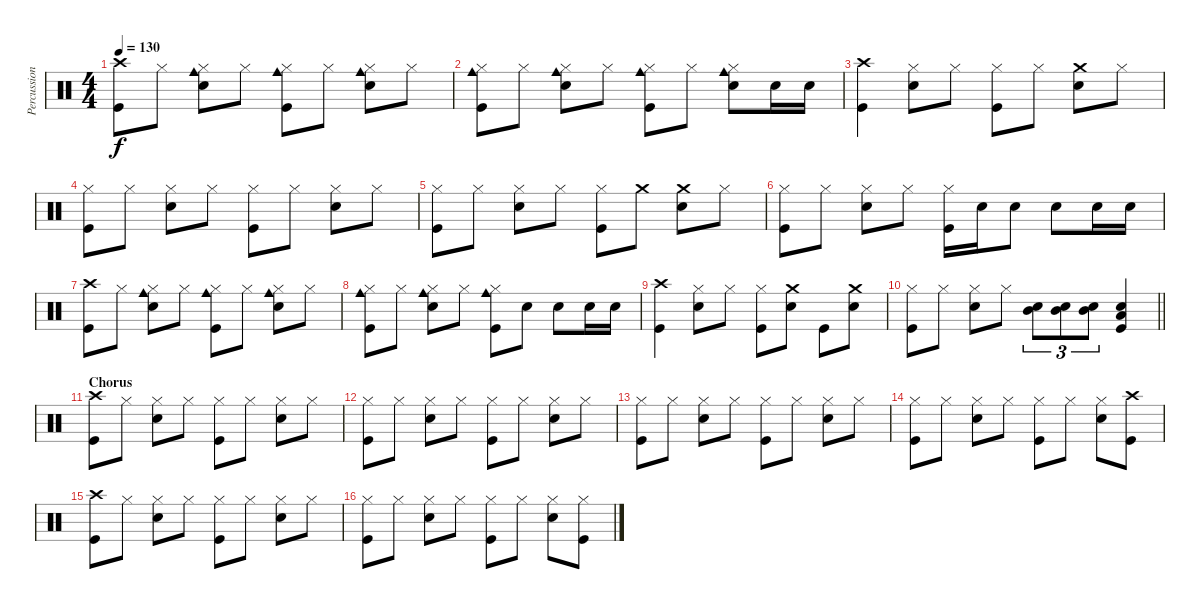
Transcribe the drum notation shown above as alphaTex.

\track ("Percussions" "Percussion") {instrument percussion}
\staff {score}
\articulation defaults
\ts (4 4)
\tempo 130
\clef neutral
\ks c
("Crash high (hit)" "Kick (hit)").8{dy f} "Hi-Hat (closed)".8 ("Cowbell medium (hit)" "Hi-Hat (closed)" "Snare (hit) 2").8 "Hi-Hat (closed)".8 ("Cowbell medium (hit)" "Hi-Hat (closed)" "Kick (hit)").8 "Hi-Hat (closed)".8 ("Cowbell medium (hit)" "Hi-Hat (closed)" "Snare (hit) 2").8 "Hi-Hat (closed)".8 |
("Cowbell medium (hit)" "Hi-Hat (closed)" "Kick (hit)").8 "Hi-Hat (closed)".8 ("Cowbell medium (hit)" "Hi-Hat (closed)" "Snare (hit) 2").8 "Hi-Hat (closed)".8 ("Cowbell medium (hit)" "Hi-Hat (closed)" "Kick (hit)").8 "Hi-Hat (closed)".8 ("Cowbell medium (hit)" "Hi-Hat (closed)" "Snare (hit) 2").8 "Snare (hit) 2".16 "Snare (hit) 2".16 |
("Crash high (hit)" "Kick (hit)").4 ("Hi-Hat (closed)" "Snare (hit) 2").8 "Hi-Hat (closed)".8 ("Hi-Hat (closed)" "Kick (hit)").8 "Hi-Hat (closed)".8 ("Crash medium (hit)" "Snare (hit) 2").8 "Hi-Hat (closed)".8 |
("Hi-Hat (closed)" "Kick (hit)").8 "Hi-Hat (closed)".8 ("Hi-Hat (closed)" "Snare (hit) 2").8 "Hi-Hat (closed)".8 ("Hi-Hat (closed)" "Kick (hit)").8 "Hi-Hat (closed)".8 ("Hi-Hat (closed)" "Snare (hit) 2").8 "Hi-Hat (closed)".8 |
("Hi-Hat (closed)" "Kick (hit)").8 "Hi-Hat (closed)".8 ("Hi-Hat (closed)" "Snare (hit) 2").8 "Hi-Hat (closed)".8 ("Hi-Hat (closed)" "Kick (hit)").8 "Crash medium (hit)".8 ("Crash medium (hit)" "Snare (hit) 2").8 "Hi-Hat (closed)".8 |
("Hi-Hat (closed)" "Kick (hit)").8 "Hi-Hat (closed)".8 ("Hi-Hat (closed)" "Snare (hit) 2").8 "Hi-Hat (closed)".8 ("Hi-Hat (closed)" "Kick (hit)").16 "Snare (hit) 2".16 "Snare (hit) 2".8 "Snare (hit) 2".8 "Snare (hit) 2".16 "Snare (hit) 2".16 |
("Crash high (hit)" "Kick (hit)").8 "Hi-Hat (closed)".8 ("Cowbell medium (hit)" "Hi-Hat (closed)" "Snare (hit) 2").8 "Hi-Hat (closed)".8 ("Cowbell medium (hit)" "Hi-Hat (closed)" "Kick (hit)").8 "Hi-Hat (closed)".8 ("Cowbell medium (hit)" "Hi-Hat (closed)" "Snare (hit) 2").8 "Hi-Hat (closed)".8 |
("Cowbell medium (hit)" "Hi-Hat (closed)" "Kick (hit)").8 "Hi-Hat (closed)".8 ("Cowbell medium (hit)" "Hi-Hat (closed)" "Snare (hit) 2").8 "Hi-Hat (closed)".8 ("Cowbell medium (hit)" "Hi-Hat (closed)" "Kick (hit)").8 "Snare (hit) 2".8 "Snare (hit) 2".8 "Snare (hit) 2".16 "Snare (hit) 2".16 |
("Crash high (hit)" "Kick (hit)").4 ("Hi-Hat (closed)" "Snare (hit) 2").8 "Hi-Hat (closed)".8 ("Hi-Hat (closed)" "Kick (hit)").8 ("Crash medium (hit)" "Snare (hit) 2").8 "Kick (hit)".8 ("Crash medium (hit)" "Snare (hit) 2").8 |
\barLineRight lightlight
("Hi-Hat (closed)" "Kick (hit)").8 "Hi-Hat (closed)".8 ("Hi-Hat (closed)" "Snare (hit) 2").8 "Hi-Hat (closed)".8 ("Mid Tom (hit)" "Snare (hit) 2").8{tu (3 2)} ("Mid Tom (hit)" "Snare (hit) 2").8{tu (3 2)} ("Mid Tom (hit)" "Snare (hit) 2").8{tu (3 2)} ("Low Tom (hit)" "Snare (hit) 2" "Kick (hit)").4 |
\section ("" "Chorus")
("Crash high (hit)" "Kick (hit)").8 "Hi-Hat (closed)".8 ("Hi-Hat (closed)" "Snare (hit) 2").8 "Hi-Hat (closed)".8 ("Hi-Hat (closed)" "Kick (hit)").8 "Hi-Hat (closed)".8 ("Hi-Hat (closed)" "Snare (hit) 2").8 "Hi-Hat (closed)".8 |
("Hi-Hat (closed)" "Kick (hit)").8 "Hi-Hat (closed)".8 ("Hi-Hat (closed)" "Snare (hit) 2").8 "Hi-Hat (closed)".8 ("Hi-Hat (closed)" "Kick (hit)").8 "Hi-Hat (closed)".8 ("Hi-Hat (closed)" "Snare (hit) 2").8 "Hi-Hat (closed)".8 |
("Hi-Hat (closed)" "Kick (hit)").8 "Hi-Hat (closed)".8 ("Hi-Hat (closed)" "Snare (hit) 2").8 "Hi-Hat (closed)".8 ("Hi-Hat (closed)" "Kick (hit)").8 "Hi-Hat (closed)".8 ("Hi-Hat (closed)" "Snare (hit) 2").8 "Hi-Hat (closed)".8 |
("Hi-Hat (closed)" "Kick (hit)").8 "Hi-Hat (closed)".8 ("Hi-Hat (closed)" "Snare (hit) 2").8 "Hi-Hat (closed)".8 ("Hi-Hat (closed)" "Kick (hit)").8 "Hi-Hat (closed)".8 ("Hi-Hat (closed)" "Snare (hit) 2").8 ("Crash high (hit)" "Kick (hit)").8 |
("Crash high (hit)" "Kick (hit)").8 "Hi-Hat (closed)".8 ("Hi-Hat (closed)" "Snare (hit) 2").8 "Hi-Hat (closed)".8 ("Hi-Hat (closed)" "Kick (hit)").8 "Hi-Hat (closed)".8 ("Hi-Hat (closed)" "Snare (hit) 2").8 "Hi-Hat (closed)".8 |
("Hi-Hat (closed)" "Kick (hit)").8 "Hi-Hat (closed)".8 ("Hi-Hat (closed)" "Snare (hit) 2").8 "Hi-Hat (closed)".8 ("Hi-Hat (closed)" "Kick (hit)").8 "Hi-Hat (closed)".8 ("Hi-Hat (closed)" "Snare (hit) 2").8 ("Hi-Hat (closed)" "Kick (hit)").8
